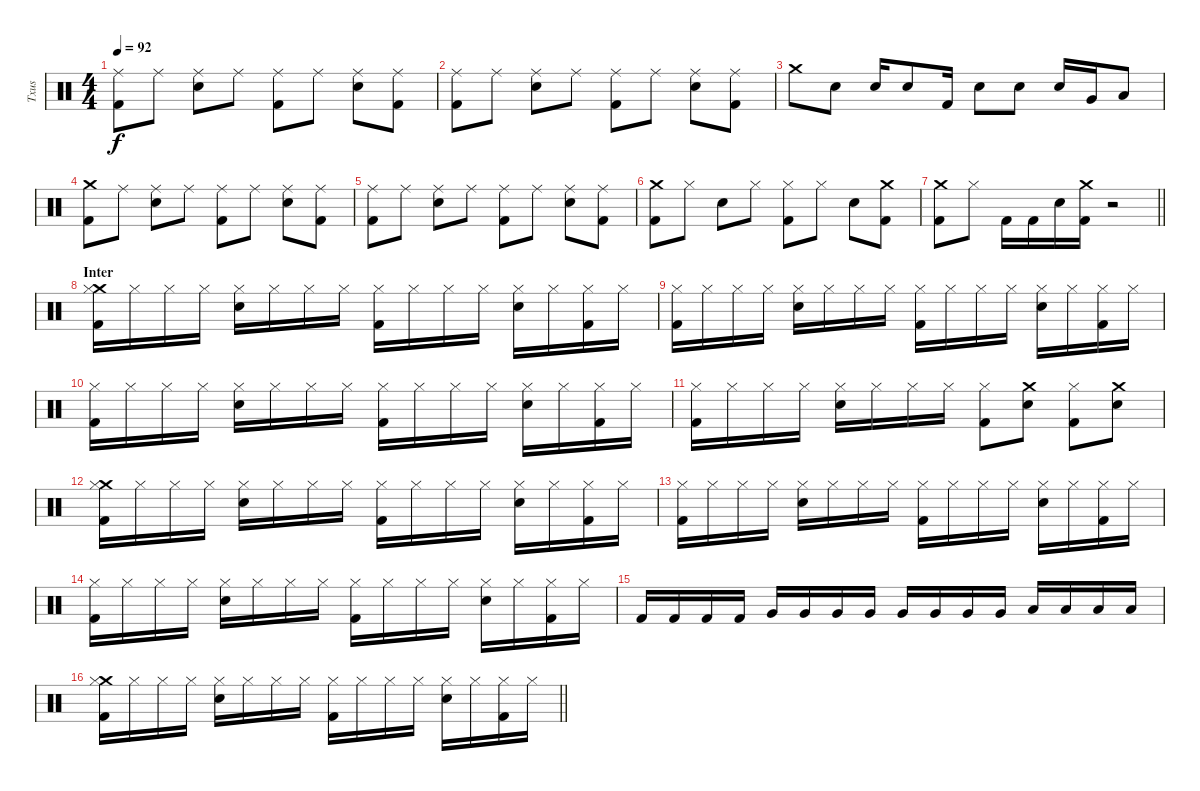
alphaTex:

\track ("Txus" "Txus") {instrument percussion}
\staff {score}
\articulation defaults
\ts (4 4)
\tempo 92
\clef neutral
\ks c
("Ride (middle)" "Kick (hit) 2").8{dy f} "Ride (middle)".8 ("Ride (middle)" "Electric Snare (hit)").8 "Ride (middle)".8 ("Ride (middle)" "Kick (hit) 2").8 "Ride (middle)".8 ("Ride (middle)" "Electric Snare (hit)").8 ("Ride (middle)" "Kick (hit) 2").8 |
("Ride (middle)" "Kick (hit) 2").8 "Ride (middle)".8 ("Ride (middle)" "Electric Snare (hit)").8 "Ride (middle)".8 ("Ride (middle)" "Kick (hit) 2").8 "Ride (middle)".8 ("Ride (middle)" "Electric Snare (hit)").8 ("Ride (middle)" "Kick (hit) 2").8 |
"Crash medium (hit)".8 "Electric Snare (hit)".8 "Electric Snare (hit)".16 "Electric Snare (hit)".8 "Kick (hit) 2".16 "Electric Snare (hit)".8 "Electric Snare (hit)".8 "Electric Snare (hit)".16 "Very Low Tom (hit)".16 "Low Floor Tom (hit)".8 |
("Crash medium (hit)" "Kick (hit) 2").8 "Ride (middle)".8 ("Ride (middle)" "Electric Snare (hit)").8 "Ride (middle)".8 ("Ride (middle)" "Kick (hit) 2").8 "Ride (middle)".8 ("Ride (middle)" "Electric Snare (hit)").8 ("Ride (middle)" "Kick (hit) 2").8 |
("Ride (middle)" "Kick (hit) 2").8 "Ride (middle)".8 ("Ride (middle)" "Electric Snare (hit)").8 "Ride (middle)".8 ("Ride (middle)" "Kick (hit) 2").8 "Ride (middle)".8 ("Ride (middle)" "Electric Snare (hit)").8 ("Ride (middle)" "Kick (hit) 2").8 |
("Crash medium (hit)" "Kick (hit) 2").8 "Hi-Hat (closed)".8 "Electric Snare (hit)".8 "Hi-Hat (closed)".8 ("Hi-Hat (closed)" "Kick (hit) 2").8 "Hi-Hat (closed)".8 "Electric Snare (hit)".8 ("Crash medium (hit)" "Kick (hit) 2").8 |
\barLineRight lightlight
("Crash medium (hit)" "Kick (hit) 2").8 "Hi-Hat (closed)".8 "Kick (hit) 2".16 "Kick (hit) 2".16 "Electric Snare (hit)".16 ("Crash medium (hit)" "Kick (hit) 2").16 r.2 |
\section ("" "Inter")
("Crash medium (hit)" "Hi-Hat (closed)" "Kick (hit) 2").16 "Hi-Hat (closed)".16 "Hi-Hat (closed)".16 "Hi-Hat (closed)".16 ("Hi-Hat (closed)" "Electric Snare (hit)").16 "Hi-Hat (closed)".16 "Hi-Hat (closed)".16 "Hi-Hat (closed)".16 ("Hi-Hat (closed)" "Kick (hit) 2").16 "Hi-Hat (closed)".16 "Hi-Hat (closed)".16 "Hi-Hat (closed)".16 ("Hi-Hat (closed)" "Electric Snare (hit)").16 "Hi-Hat (closed)".16 ("Hi-Hat (closed)" "Kick (hit) 2").16 "Hi-Hat (closed)".16 |
("Hi-Hat (closed)" "Kick (hit) 2").16 "Hi-Hat (closed)".16 "Hi-Hat (closed)".16 "Hi-Hat (closed)".16 ("Hi-Hat (closed)" "Electric Snare (hit)").16 "Hi-Hat (closed)".16 "Hi-Hat (closed)".16 "Hi-Hat (closed)".16 ("Hi-Hat (closed)" "Kick (hit) 2").16 "Hi-Hat (closed)".16 "Hi-Hat (closed)".16 "Hi-Hat (closed)".16 ("Hi-Hat (closed)" "Electric Snare (hit)").16 "Hi-Hat (closed)".16 ("Hi-Hat (closed)" "Kick (hit) 2").16 "Hi-Hat (closed)".16 |
("Hi-Hat (closed)" "Kick (hit) 2").16 "Hi-Hat (closed)".16 "Hi-Hat (closed)".16 "Hi-Hat (closed)".16 ("Hi-Hat (closed)" "Electric Snare (hit)").16 "Hi-Hat (closed)".16 "Hi-Hat (closed)".16 "Hi-Hat (closed)".16 ("Hi-Hat (closed)" "Kick (hit) 2").16 "Hi-Hat (closed)".16 "Hi-Hat (closed)".16 "Hi-Hat (closed)".16 ("Hi-Hat (closed)" "Electric Snare (hit)").16 "Hi-Hat (closed)".16 ("Hi-Hat (closed)" "Kick (hit) 2").16 "Hi-Hat (closed)".16 |
("Hi-Hat (closed)" "Kick (hit) 2").16 "Hi-Hat (closed)".16 "Hi-Hat (closed)".16 "Hi-Hat (closed)".16 ("Hi-Hat (closed)" "Electric Snare (hit)").16 "Hi-Hat (closed)".16 "Hi-Hat (closed)".16 "Hi-Hat (closed)".16 ("Hi-Hat (closed)" "Kick (hit) 2").8 ("Crash medium (hit)" "Electric Snare (hit)").8 ("Hi-Hat (closed)" "Kick (hit) 2").8 ("Crash medium (hit)" "Electric Snare (hit)").8 |
("Crash medium (hit)" "Hi-Hat (closed)" "Kick (hit) 2").16 "Hi-Hat (closed)".16 "Hi-Hat (closed)".16 "Hi-Hat (closed)".16 ("Hi-Hat (closed)" "Electric Snare (hit)").16 "Hi-Hat (closed)".16 "Hi-Hat (closed)".16 "Hi-Hat (closed)".16 ("Hi-Hat (closed)" "Kick (hit) 2").16 "Hi-Hat (closed)".16 "Hi-Hat (closed)".16 "Hi-Hat (closed)".16 ("Hi-Hat (closed)" "Electric Snare (hit)").16 "Hi-Hat (closed)".16 ("Hi-Hat (closed)" "Kick (hit) 2").16 "Hi-Hat (closed)".16 |
("Hi-Hat (closed)" "Kick (hit) 2").16 "Hi-Hat (closed)".16 "Hi-Hat (closed)".16 "Hi-Hat (closed)".16 ("Hi-Hat (closed)" "Electric Snare (hit)").16 "Hi-Hat (closed)".16 "Hi-Hat (closed)".16 "Hi-Hat (closed)".16 ("Hi-Hat (closed)" "Kick (hit) 2").16 "Hi-Hat (closed)".16 "Hi-Hat (closed)".16 "Hi-Hat (closed)".16 ("Hi-Hat (closed)" "Electric Snare (hit)").16 "Hi-Hat (closed)".16 ("Hi-Hat (closed)" "Kick (hit) 2").16 "Hi-Hat (closed)".16 |
("Hi-Hat (closed)" "Kick (hit) 2").16 "Hi-Hat (closed)".16 "Hi-Hat (closed)".16 "Hi-Hat (closed)".16 ("Hi-Hat (closed)" "Electric Snare (hit)").16 "Hi-Hat (closed)".16 "Hi-Hat (closed)".16 "Hi-Hat (closed)".16 ("Hi-Hat (closed)" "Kick (hit) 2").16 "Hi-Hat (closed)".16 "Hi-Hat (closed)".16 "Hi-Hat (closed)".16 ("Hi-Hat (closed)" "Electric Snare (hit)").16 "Hi-Hat (closed)".16 ("Hi-Hat (closed)" "Kick (hit) 2").16 "Hi-Hat (closed)".16 |
"Kick (hit) 2".16 "Kick (hit) 2".16 "Kick (hit) 2".16 "Kick (hit) 2".16 "Very Low Tom (hit)".16 "Very Low Tom (hit)".16 "Very Low Tom (hit)".16 "Very Low Tom (hit)".16 "Very Low Tom (hit)".16 "Very Low Tom (hit)".16 "Very Low Tom (hit)".16 "Very Low Tom (hit)".16 "Low Floor Tom (hit)".16 "Low Floor Tom (hit)".16 "Low Floor Tom (hit)".16 "Low Floor Tom (hit)".16 |
\barLineRight lightlight
("Crash medium (hit)" "Hi-Hat (closed)" "Kick (hit) 2").16 "Hi-Hat (closed)".16 "Hi-Hat (closed)".16 "Hi-Hat (closed)".16 ("Hi-Hat (closed)" "Electric Snare (hit)").16 "Hi-Hat (closed)".16 "Hi-Hat (closed)".16 "Hi-Hat (closed)".16 ("Hi-Hat (closed)" "Kick (hit) 2").16 "Hi-Hat (closed)".16 "Hi-Hat (closed)".16 "Hi-Hat (closed)".16 ("Hi-Hat (closed)" "Electric Snare (hit)").16 "Hi-Hat (closed)".16 ("Hi-Hat (closed)" "Kick (hit) 2").16 "Hi-Hat (closed)".16
